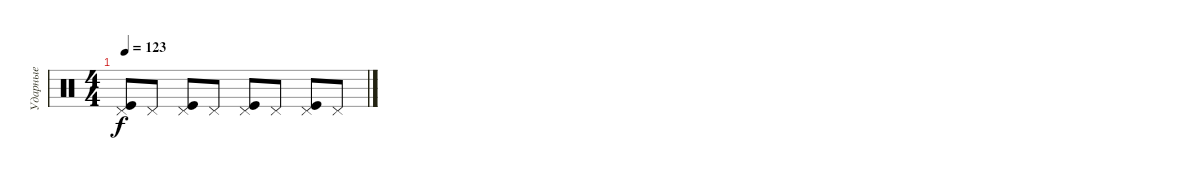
\track ("Ударные" "Ударные") {instrument percussion}
\staff {score}
\articulation defaults
\ts (4 4)
\tempo 123
\clef neutral
\ks c
("Kick (hit)" "Pedal Hi-Hat (hit)").8{dy f} "Pedal Hi-Hat (hit)".8 ("Kick (hit)" "Pedal Hi-Hat (hit)").8 "Pedal Hi-Hat (hit)".8 ("Kick (hit)" "Pedal Hi-Hat (hit)").8 "Pedal Hi-Hat (hit)".8 ("Kick (hit)" "Pedal Hi-Hat (hit)").8 "Pedal Hi-Hat (hit)".8
